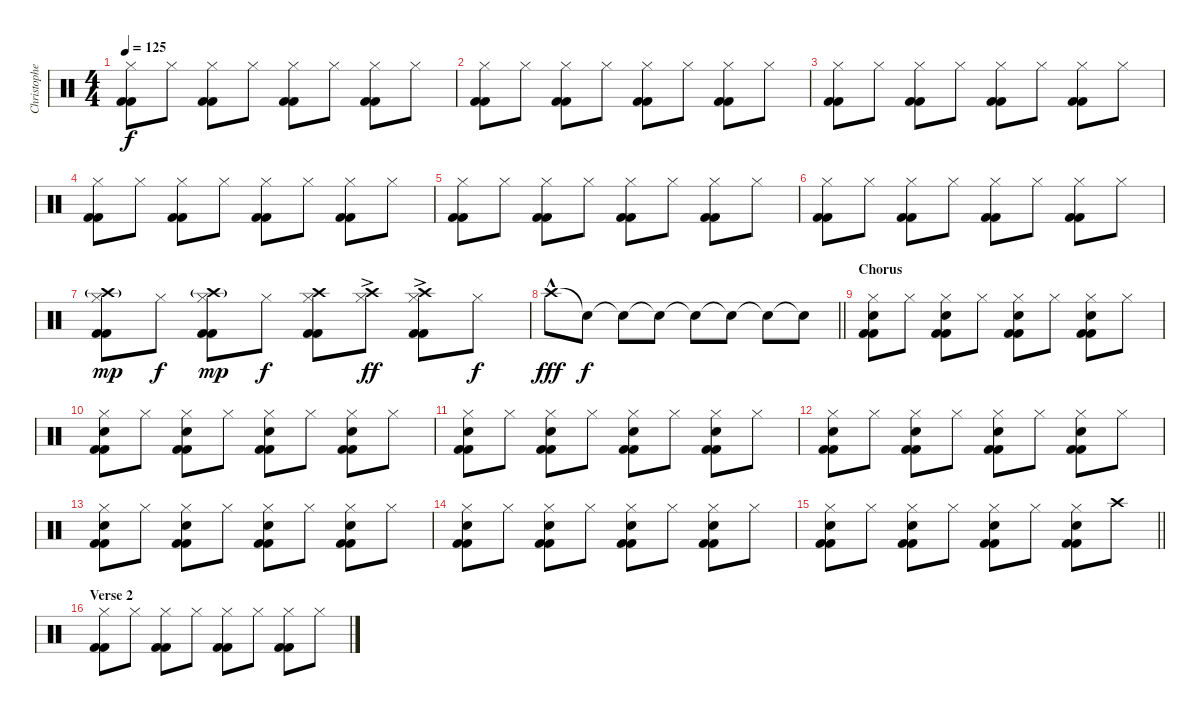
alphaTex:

\track ("Christopher S. (Drums)" "Christophe") {instrument percussion}
\staff {score}
\articulation defaults
\ts (4 4)
\tempo 125
\clef neutral
\ks c
("Hi-Hat (closed)" "Kick (hit) 2" "Kick (hit) 2").8{dy f} "Hi-Hat (closed)".8 ("Hi-Hat (closed)" "Kick (hit) 2" "Kick (hit) 2").8 "Hi-Hat (closed)".8 ("Hi-Hat (closed)" "Kick (hit) 2" "Kick (hit) 2").8 "Hi-Hat (closed)".8 ("Hi-Hat (closed)" "Kick (hit) 2" "Kick (hit) 2").8 "Hi-Hat (closed)".8 |
("Hi-Hat (closed)" "Kick (hit) 2" "Kick (hit) 2").8 "Hi-Hat (closed)".8 ("Hi-Hat (closed)" "Kick (hit) 2" "Kick (hit) 2").8 "Hi-Hat (closed)".8 ("Hi-Hat (closed)" "Kick (hit) 2" "Kick (hit) 2").8 "Hi-Hat (closed)".8 ("Hi-Hat (closed)" "Kick (hit) 2" "Kick (hit) 2").8 "Hi-Hat (closed)".8 |
("Hi-Hat (closed)" "Kick (hit) 2" "Kick (hit) 2").8 "Hi-Hat (closed)".8 ("Hi-Hat (closed)" "Kick (hit) 2" "Kick (hit) 2").8 "Hi-Hat (closed)".8 ("Hi-Hat (closed)" "Kick (hit) 2" "Kick (hit) 2").8 "Hi-Hat (closed)".8 ("Hi-Hat (closed)" "Kick (hit) 2" "Kick (hit) 2").8 "Hi-Hat (closed)".8 |
("Hi-Hat (closed)" "Kick (hit) 2" "Kick (hit) 2").8 "Hi-Hat (closed)".8 ("Hi-Hat (closed)" "Kick (hit) 2" "Kick (hit) 2").8 "Hi-Hat (closed)".8 ("Hi-Hat (closed)" "Kick (hit) 2" "Kick (hit) 2").8 "Hi-Hat (closed)".8 ("Hi-Hat (closed)" "Kick (hit) 2" "Kick (hit) 2").8 "Hi-Hat (closed)".8 |
("Hi-Hat (closed)" "Kick (hit) 2" "Kick (hit) 2").8 "Hi-Hat (closed)".8 ("Hi-Hat (closed)" "Kick (hit) 2" "Kick (hit) 2").8 "Hi-Hat (closed)".8 ("Hi-Hat (closed)" "Kick (hit) 2" "Kick (hit) 2").8 "Hi-Hat (closed)".8 ("Hi-Hat (closed)" "Kick (hit) 2" "Kick (hit) 2").8 "Hi-Hat (closed)".8 |
("Hi-Hat (closed)" "Kick (hit) 2" "Kick (hit) 2").8 "Hi-Hat (closed)".8 ("Hi-Hat (closed)" "Kick (hit) 2" "Kick (hit) 2").8 "Hi-Hat (closed)".8 ("Hi-Hat (closed)" "Kick (hit) 2" "Kick (hit) 2").8 "Hi-Hat (closed)".8 ("Hi-Hat (closed)" "Kick (hit) 2" "Kick (hit) 2").8 "Hi-Hat (closed)".8 |
("Crash high (hit)"{g} "Hi-Hat (closed)" "Kick (hit) 2" "Kick (hit) 2").8{dy mp} "Hi-Hat (closed)".8{dy f} ("Crash high (hit)"{g} "Hi-Hat (closed)" "Kick (hit) 2" "Kick (hit) 2").8{dy mp} "Hi-Hat (closed)".8{dy f} ("Crash high (hit)" "Hi-Hat (closed)" "Kick (hit) 2" "Kick (hit) 2").8 ("Crash high (hit)"{ac} "Hi-Hat (closed)").8{dy ff} ("Crash high (hit)"{ac} "Hi-Hat (closed)" "Kick (hit) 2" "Kick (hit) 2").8 "Hi-Hat (closed)".8{dy f} |
\barLineRight lightlight "Crash high (hit)"{hac}.8{dy fff} "Snare (hit)"{t}.8{dy f} "Snare (hit)"{t}.8 "Snare (hit)"{t}.8 "Snare (hit)"{t}.8 "Snare (hit)"{t}.8 "Snare (hit)"{t}.8 "Snare (hit)"{t}.8
|
\section ("" "Chorus")
("Hi-Hat (closed)" "Kick (hit) 2" "Kick (hit) 2" "Electric Snare (hit)").8 "Hi-Hat (closed)".8 ("Hi-Hat (closed)" "Kick (hit) 2" "Kick (hit) 2" "Electric Snare (hit)").8 "Hi-Hat (closed)".8 ("Hi-Hat (closed)" "Kick (hit) 2" "Kick (hit) 2" "Electric Snare (hit)").8 "Hi-Hat (closed)".8 ("Hi-Hat (closed)" "Kick (hit) 2" "Kick (hit) 2" "Electric Snare (hit)").8 "Hi-Hat (closed)".8 |
("Hi-Hat (closed)" "Kick (hit) 2" "Kick (hit) 2" "Electric Snare (hit)").8 "Hi-Hat (closed)".8 ("Hi-Hat (closed)" "Kick (hit) 2" "Kick (hit) 2" "Electric Snare (hit)").8 "Hi-Hat (closed)".8 ("Hi-Hat (closed)" "Kick (hit) 2" "Kick (hit) 2" "Electric Snare (hit)").8 "Hi-Hat (closed)".8 ("Hi-Hat (closed)" "Kick (hit) 2" "Kick (hit) 2" "Electric Snare (hit)").8 "Hi-Hat (closed)".8 |
("Hi-Hat (closed)" "Kick (hit) 2" "Kick (hit) 2" "Electric Snare (hit)").8 "Hi-Hat (closed)".8 ("Hi-Hat (closed)" "Kick (hit) 2" "Kick (hit) 2" "Electric Snare (hit)").8 "Hi-Hat (closed)".8 ("Hi-Hat (closed)" "Kick (hit) 2" "Kick (hit) 2" "Electric Snare (hit)").8 "Hi-Hat (closed)".8 ("Hi-Hat (closed)" "Kick (hit) 2" "Kick (hit) 2" "Electric Snare (hit)").8 "Hi-Hat (closed)".8 |
("Hi-Hat (closed)" "Kick (hit) 2" "Kick (hit) 2" "Electric Snare (hit)").8 "Hi-Hat (closed)".8 ("Hi-Hat (closed)" "Kick (hit) 2" "Kick (hit) 2" "Electric Snare (hit)").8 "Hi-Hat (closed)".8 ("Hi-Hat (closed)" "Kick (hit) 2" "Kick (hit) 2" "Electric Snare (hit)").8 "Hi-Hat (closed)".8 ("Hi-Hat (closed)" "Kick (hit) 2" "Kick (hit) 2" "Electric Snare (hit)").8 "Hi-Hat (closed)".8 |
("Hi-Hat (closed)" "Kick (hit) 2" "Kick (hit) 2" "Electric Snare (hit)").8 "Hi-Hat (closed)".8 ("Hi-Hat (closed)" "Kick (hit) 2" "Kick (hit) 2" "Electric Snare (hit)").8 "Hi-Hat (closed)".8 ("Hi-Hat (closed)" "Kick (hit) 2" "Kick (hit) 2" "Electric Snare (hit)").8 "Hi-Hat (closed)".8 ("Hi-Hat (closed)" "Kick (hit) 2" "Kick (hit) 2" "Electric Snare (hit)").8 "Hi-Hat (closed)".8 |
("Hi-Hat (closed)" "Kick (hit) 2" "Kick (hit) 2" "Electric Snare (hit)").8 "Hi-Hat (closed)".8 ("Hi-Hat (closed)" "Kick (hit) 2" "Kick (hit) 2" "Electric Snare (hit)").8 "Hi-Hat (closed)".8 ("Hi-Hat (closed)" "Kick (hit) 2" "Kick (hit) 2" "Electric Snare (hit)").8 "Hi-Hat (closed)".8 ("Hi-Hat (closed)" "Kick (hit) 2" "Kick (hit) 2" "Electric Snare (hit)").8 "Hi-Hat (closed)".8 |
\barLineRight lightlight
("Hi-Hat (closed)" "Kick (hit) 2" "Kick (hit) 2" "Electric Snare (hit)").8 "Hi-Hat (closed)".8 ("Hi-Hat (closed)" "Kick (hit) 2" "Kick (hit) 2" "Electric Snare (hit)").8 "Hi-Hat (closed)".8 ("Hi-Hat (closed)" "Kick (hit) 2" "Kick (hit) 2" "Electric Snare (hit)").8 "Hi-Hat (closed)".8 ("Hi-Hat (closed)" "Kick (hit) 2" "Kick (hit) 2" "Electric Snare (hit)").8 "Crash high (hit)".8 |
\section ("" "Verse 2")
("Hi-Hat (closed)" "Kick (hit) 2" "Kick (hit) 2").8 "Hi-Hat (closed)".8 ("Hi-Hat (closed)" "Kick (hit) 2" "Kick (hit) 2").8 "Hi-Hat (closed)".8 ("Hi-Hat (closed)" "Kick (hit) 2" "Kick (hit) 2").8 "Hi-Hat (closed)".8 ("Hi-Hat (closed)" "Kick (hit) 2" "Kick (hit) 2").8 "Hi-Hat (closed)".8
